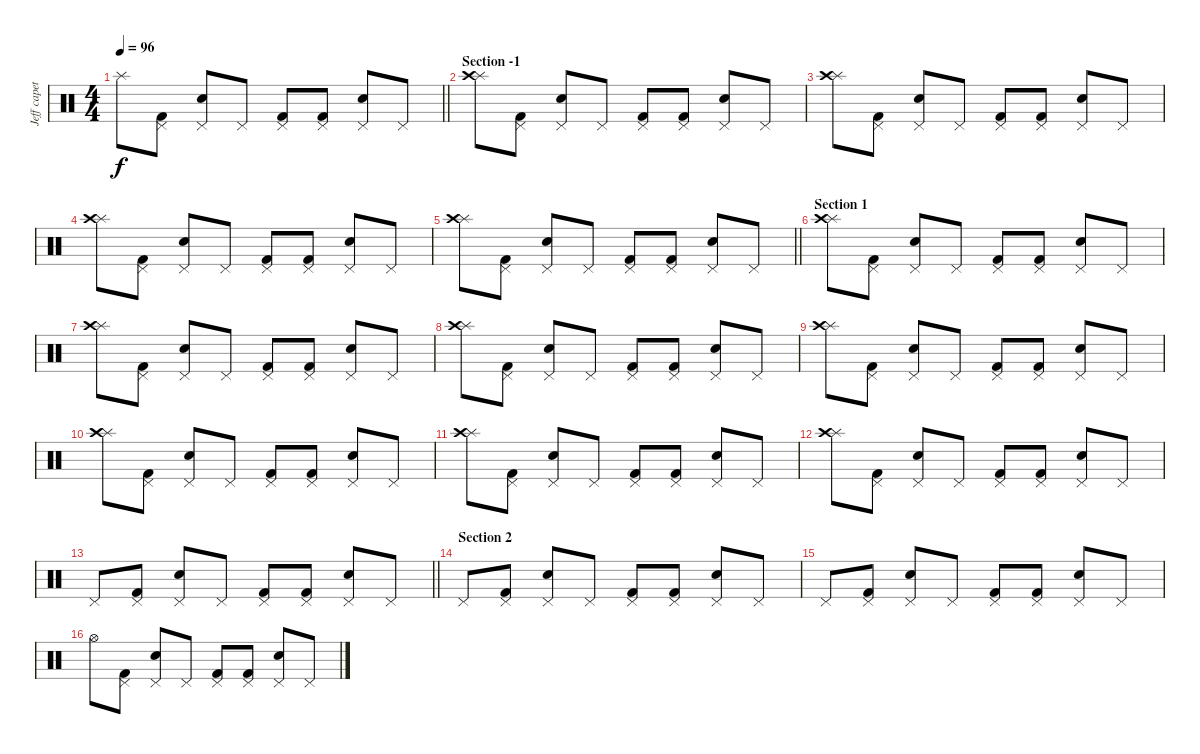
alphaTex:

\track ("Jeff capetally" "Jeff capet") {instrument percussion}
\staff {score}
\articulation defaults
\ts (4 4)
\tempo 96
\clef neutral
\barLineRight lightlight
\ks c "Splash (hit)".8{dy f}
("Pedal Hi-Hat (hit)" "Kick (hit) 2").8 ("Pedal Hi-Hat (hit)" "Snare (hit) 2").8 "Pedal Hi-Hat (hit)".8 ("Pedal Hi-Hat (hit)" "Kick (hit) 2").8 ("Pedal Hi-Hat (hit)" "Kick (hit) 2").8 ("Pedal Hi-Hat (hit)" "Snare (hit) 2").8 "Pedal Hi-Hat (hit)".8 |
\section ("" "Section -1")
("Splash (hit)" "Crash high (hit)").8 ("Pedal Hi-Hat (hit)" "Kick (hit) 2").8 ("Pedal Hi-Hat (hit)" "Snare (hit) 2").8 "Pedal Hi-Hat (hit)".8 ("Pedal Hi-Hat (hit)" "Kick (hit) 2").8 ("Pedal Hi-Hat (hit)" "Kick (hit) 2").8 ("Pedal Hi-Hat (hit)" "Snare (hit) 2").8 "Pedal Hi-Hat (hit)".8 |
("Splash (hit)" "Crash high (hit)").8 ("Pedal Hi-Hat (hit)" "Kick (hit) 2").8 ("Pedal Hi-Hat (hit)" "Snare (hit) 2").8 "Pedal Hi-Hat (hit)".8 ("Pedal Hi-Hat (hit)" "Kick (hit) 2").8 ("Pedal Hi-Hat (hit)" "Kick (hit) 2").8 ("Pedal Hi-Hat (hit)" "Snare (hit) 2").8 "Pedal Hi-Hat (hit)".8 |
("Splash (hit)" "Crash high (hit)").8 ("Pedal Hi-Hat (hit)" "Kick (hit) 2").8 ("Pedal Hi-Hat (hit)" "Snare (hit) 2").8 "Pedal Hi-Hat (hit)".8 ("Pedal Hi-Hat (hit)" "Kick (hit) 2").8 ("Pedal Hi-Hat (hit)" "Kick (hit) 2").8 ("Pedal Hi-Hat (hit)" "Snare (hit) 2").8 "Pedal Hi-Hat (hit)".8 |
\barLineRight lightlight
("Splash (hit)" "Crash high (hit)").8 ("Pedal Hi-Hat (hit)" "Kick (hit) 2").8 ("Pedal Hi-Hat (hit)" "Snare (hit) 2").8 "Pedal Hi-Hat (hit)".8 ("Pedal Hi-Hat (hit)" "Kick (hit) 2").8 ("Pedal Hi-Hat (hit)" "Kick (hit) 2").8 ("Pedal Hi-Hat (hit)" "Snare (hit) 2").8 "Pedal Hi-Hat (hit)".8 |
\section ("" "Section 1")
("Splash (hit)" "Crash high (hit)").8 ("Pedal Hi-Hat (hit)" "Kick (hit) 2").8 ("Pedal Hi-Hat (hit)" "Snare (hit) 2").8 "Pedal Hi-Hat (hit)".8 ("Pedal Hi-Hat (hit)" "Kick (hit) 2").8 ("Pedal Hi-Hat (hit)" "Kick (hit) 2").8 ("Pedal Hi-Hat (hit)" "Snare (hit) 2").8 "Pedal Hi-Hat (hit)".8 |
("Splash (hit)" "Crash high (hit)").8 ("Pedal Hi-Hat (hit)" "Kick (hit) 2").8 ("Pedal Hi-Hat (hit)" "Snare (hit) 2").8 "Pedal Hi-Hat (hit)".8 ("Pedal Hi-Hat (hit)" "Kick (hit) 2").8 ("Pedal Hi-Hat (hit)" "Kick (hit) 2").8 ("Pedal Hi-Hat (hit)" "Snare (hit) 2").8 "Pedal Hi-Hat (hit)".8 |
("Splash (hit)" "Crash high (hit)").8 ("Pedal Hi-Hat (hit)" "Kick (hit) 2").8 ("Pedal Hi-Hat (hit)" "Snare (hit) 2").8 "Pedal Hi-Hat (hit)".8 ("Pedal Hi-Hat (hit)" "Kick (hit) 2").8 ("Pedal Hi-Hat (hit)" "Kick (hit) 2").8 ("Pedal Hi-Hat (hit)" "Snare (hit) 2").8 "Pedal Hi-Hat (hit)".8 |
("Splash (hit)" "Crash high (hit)").8 ("Pedal Hi-Hat (hit)" "Kick (hit) 2").8 ("Pedal Hi-Hat (hit)" "Snare (hit) 2").8 "Pedal Hi-Hat (hit)".8 ("Pedal Hi-Hat (hit)" "Kick (hit) 2").8 ("Pedal Hi-Hat (hit)" "Kick (hit) 2").8 ("Pedal Hi-Hat (hit)" "Snare (hit) 2").8 "Pedal Hi-Hat (hit)".8 |
("Splash (hit)" "Crash high (hit)").8 ("Pedal Hi-Hat (hit)" "Kick (hit) 2").8 ("Pedal Hi-Hat (hit)" "Snare (hit) 2").8 "Pedal Hi-Hat (hit)".8 ("Pedal Hi-Hat (hit)" "Kick (hit) 2").8 ("Pedal Hi-Hat (hit)" "Kick (hit) 2").8 ("Pedal Hi-Hat (hit)" "Snare (hit) 2").8 "Pedal Hi-Hat (hit)".8 |
("Splash (hit)" "Crash high (hit)").8 ("Pedal Hi-Hat (hit)" "Kick (hit) 2").8 ("Pedal Hi-Hat (hit)" "Snare (hit) 2").8 "Pedal Hi-Hat (hit)".8 ("Pedal Hi-Hat (hit)" "Kick (hit) 2").8 ("Pedal Hi-Hat (hit)" "Kick (hit) 2").8 ("Pedal Hi-Hat (hit)" "Snare (hit) 2").8 "Pedal Hi-Hat (hit)".8 |
("Splash (hit)" "Crash high (hit)").8 ("Pedal Hi-Hat (hit)" "Kick (hit) 2").8 ("Pedal Hi-Hat (hit)" "Snare (hit) 2").8 "Pedal Hi-Hat (hit)".8 ("Pedal Hi-Hat (hit)" "Kick (hit) 2").8 ("Pedal Hi-Hat (hit)" "Kick (hit) 2").8 ("Pedal Hi-Hat (hit)" "Snare (hit) 2").8 "Pedal Hi-Hat (hit)".8 |
\barLineRight lightlight "Pedal Hi-Hat (hit)".8
("Pedal Hi-Hat (hit)" "Kick (hit) 2").8 ("Pedal Hi-Hat (hit)" "Snare (hit) 2").8 "Pedal Hi-Hat (hit)".8 ("Pedal Hi-Hat (hit)" "Kick (hit) 2").8 ("Pedal Hi-Hat (hit)" "Kick (hit) 2").8 ("Pedal Hi-Hat (hit)" "Snare (hit) 2").8 "Pedal Hi-Hat (hit)".8 |
\section ("" "Section 2")
"Pedal Hi-Hat (hit)".8 ("Pedal Hi-Hat (hit)" "Kick (hit) 2").8 ("Pedal Hi-Hat (hit)" "Snare (hit) 2").8 "Pedal Hi-Hat (hit)".8 ("Pedal Hi-Hat (hit)" "Kick (hit) 2").8 ("Pedal Hi-Hat (hit)" "Kick (hit) 2").8 ("Pedal Hi-Hat (hit)" "Snare (hit) 2").8 "Pedal Hi-Hat (hit)".8 |
"Pedal Hi-Hat (hit)".8 ("Pedal Hi-Hat (hit)" "Kick (hit) 2").8 ("Pedal Hi-Hat (hit)" "Snare (hit) 2").8 "Pedal Hi-Hat (hit)".8 ("Pedal Hi-Hat (hit)" "Kick (hit) 2").8 ("Pedal Hi-Hat (hit)" "Kick (hit) 2").8 ("Pedal Hi-Hat (hit)" "Snare (hit) 2").8 "Pedal Hi-Hat (hit)".8 |
"Hi-Hat (open)".8 ("Pedal Hi-Hat (hit)" "Kick (hit) 2").8 ("Pedal Hi-Hat (hit)" "Snare (hit) 2").8 "Pedal Hi-Hat (hit)".8 ("Pedal Hi-Hat (hit)" "Kick (hit) 2").8 ("Pedal Hi-Hat (hit)" "Kick (hit) 2").8 ("Pedal Hi-Hat (hit)" "Snare (hit) 2").8 "Pedal Hi-Hat (hit)".8
